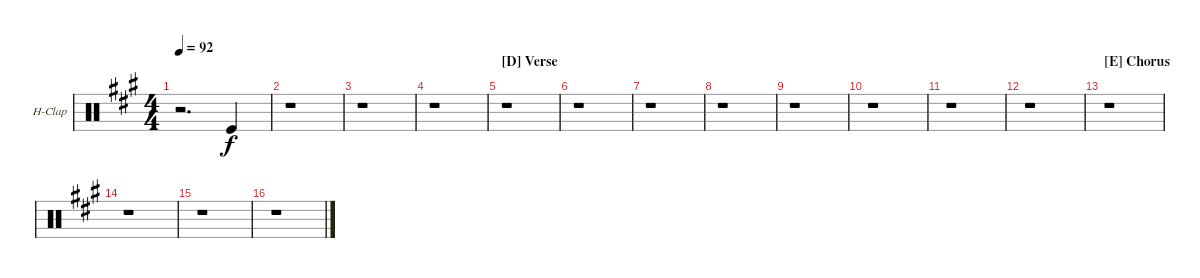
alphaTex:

\defaultSystemsLayout 4
\bracketExtendMode groupsimilarinstruments
\firstSystemTrackNameOrientation horizontal
\otherSystemsTrackNameOrientation horizontal
\track ("Hand Clap" "H-Clap") {instrument percussion}
\staff {score}
\articulation defaults
\ts (4 4)
\tempo 92
\clef neutral
\ks a
r.2{d dy f} "Kick (hit)".4 |
r.1 |
r.1 |
r.1 |
\section ("D" "Verse")
r.1 |
r.1 |
r.1 |
r.1 |
r.1 |
r.1 |
r.1 |
r.1 |
\section ("E" "Chorus")
r.1 |
r.1 |
r.1 |
r.1
